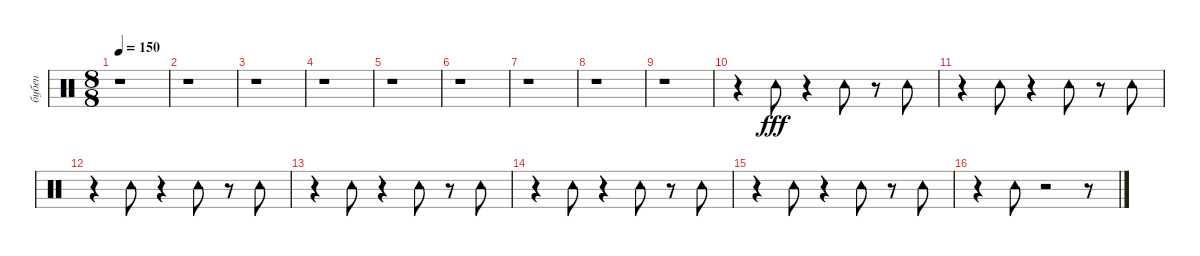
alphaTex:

\track ("бубен" "бубен") {instrument percussion}
\staff {score}
\articulation defaults
\ts (8 8)
\tempo 150
\clef neutral
\ks c
r.1{dy fff} |
r.1 |
r.1 |
r.1 |
r.1 |
r.1 |
r.1 |
r.1 |
r.1 |
r.4 "Tambourine (hit)".8 r.4 "Tambourine (hit)".8 r.8 "Tambourine (hit)".8 |
r.4 "Tambourine (hit)".8 r.4 "Tambourine (hit)".8 r.8 "Tambourine (hit)".8 |
r.4 "Tambourine (hit)".8 r.4 "Tambourine (hit)".8 r.8 "Tambourine (hit)".8 |
r.4 "Tambourine (hit)".8 r.4 "Tambourine (hit)".8 r.8 "Tambourine (hit)".8 |
r.4 "Tambourine (hit)".8 r.4 "Tambourine (hit)".8 r.8 "Tambourine (hit)".8 |
r.4 "Tambourine (hit)".8 r.4 "Tambourine (hit)".8 r.8 "Tambourine (hit)".8 |
r.4 "Tambourine (hit)".8 r.2 r.8
